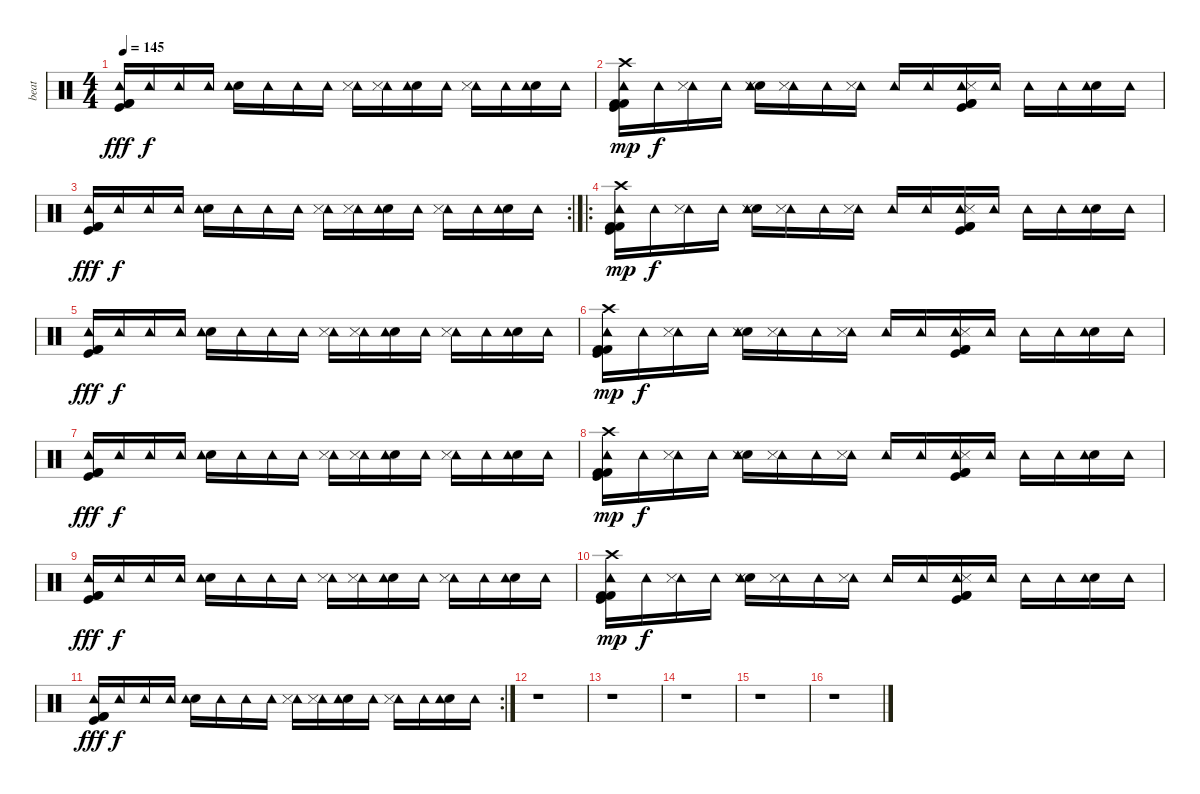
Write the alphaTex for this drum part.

\track ("beat" "beat") {instrument percussion}
\staff {score}
\articulation defaults
\ts (4 4)
\tempo 145
\clef neutral
\ks c
("Kick (hit)" "Kick (hit) 2" "Kick (hit) 2" "Tambourine (hit)").16{dy fff} "Tambourine (hit)".16{dy f} "Tambourine (hit)".16 "Tambourine (hit)".16 ("Electric Snare (hit)" "Tambourine (hit)").16 "Tambourine (hit)".16 "Tambourine (hit)".16 "Tambourine (hit)".16 ("Tambourine (hit)" "Snare (side stick) 3").16 ("Tambourine (hit)" "Snare (side stick) 3").16 ("Electric Snare (hit)" "Tambourine (hit)").16 "Tambourine (hit)".16 ("Tambourine (hit)" "Snare (side stick) 3").16 "Tambourine (hit)".16 ("Electric Snare (hit)" "Tambourine (hit)").16 "Tambourine (hit)".16 |
("Kick (hit)" "Kick (hit) 2" "Kick (hit) 2" "Tambourine (hit)" "Crash high (hit)").16{dy mp} "Tambourine (hit)".16{dy f} ("Tambourine (hit)" "Snare (side stick) 3").16 "Tambourine (hit)".16 ("Electric Snare (hit)" "Tambourine (hit)" "Snare (side stick) 3").16 ("Tambourine (hit)" "Snare (side stick) 3").16 "Tambourine (hit)".16 ("Tambourine (hit)" "Snare (side stick) 3").16 "Tambourine (hit)".16 "Tambourine (hit)".16 ("Kick (hit)" "Kick (hit) 2" "Kick (hit) 2" "Tambourine (hit)" "Snare (side stick) 3").16 "Tambourine (hit)".16 "Tambourine (hit)".16 "Tambourine (hit)".16 ("Electric Snare (hit)" "Tambourine (hit)").16 "Tambourine (hit)".16 |
\rc 2
("Kick (hit)" "Kick (hit) 2" "Kick (hit) 2" "Tambourine (hit)").16{dy fff} "Tambourine (hit)".16{dy f} "Tambourine (hit)".16 "Tambourine (hit)".16 ("Electric Snare (hit)" "Tambourine (hit)").16 "Tambourine (hit)".16 "Tambourine (hit)".16 "Tambourine (hit)".16 ("Tambourine (hit)" "Snare (side stick) 3").16 ("Tambourine (hit)" "Snare (side stick) 3").16 ("Electric Snare (hit)" "Tambourine (hit)").16 "Tambourine (hit)".16 ("Tambourine (hit)" "Snare (side stick) 3").16 "Tambourine (hit)".16 ("Electric Snare (hit)" "Tambourine (hit)").16 "Tambourine (hit)".16 |
\ro
("Kick (hit)" "Kick (hit) 2" "Kick (hit) 2" "Tambourine (hit)" "Crash high (hit)").16{dy mp} "Tambourine (hit)".16{dy f} ("Tambourine (hit)" "Snare (side stick) 3").16 "Tambourine (hit)".16 ("Electric Snare (hit)" "Tambourine (hit)" "Snare (side stick) 3").16 ("Tambourine (hit)" "Snare (side stick) 3").16 "Tambourine (hit)".16 ("Tambourine (hit)" "Snare (side stick) 3").16 "Tambourine (hit)".16 "Tambourine (hit)".16 ("Kick (hit)" "Kick (hit) 2" "Kick (hit) 2" "Tambourine (hit)" "Snare (side stick) 3").16 "Tambourine (hit)".16 "Tambourine (hit)".16 "Tambourine (hit)".16 ("Electric Snare (hit)" "Tambourine (hit)").16 "Tambourine (hit)".16 |
("Kick (hit)" "Kick (hit) 2" "Kick (hit) 2" "Tambourine (hit)").16{dy fff} "Tambourine (hit)".16{dy f} "Tambourine (hit)".16 "Tambourine (hit)".16 ("Electric Snare (hit)" "Tambourine (hit)").16 "Tambourine (hit)".16 "Tambourine (hit)".16 "Tambourine (hit)".16 ("Tambourine (hit)" "Snare (side stick) 3").16 ("Tambourine (hit)" "Snare (side stick) 3").16 ("Electric Snare (hit)" "Tambourine (hit)").16 "Tambourine (hit)".16 ("Tambourine (hit)" "Snare (side stick) 3").16 "Tambourine (hit)".16 ("Electric Snare (hit)" "Tambourine (hit)").16 "Tambourine (hit)".16 |
("Kick (hit)" "Kick (hit) 2" "Kick (hit) 2" "Tambourine (hit)" "Crash high (hit)").16{dy mp} "Tambourine (hit)".16{dy f} ("Tambourine (hit)" "Snare (side stick) 3").16 "Tambourine (hit)".16 ("Electric Snare (hit)" "Tambourine (hit)" "Snare (side stick) 3").16 ("Tambourine (hit)" "Snare (side stick) 3").16 "Tambourine (hit)".16 ("Tambourine (hit)" "Snare (side stick) 3").16 "Tambourine (hit)".16 "Tambourine (hit)".16 ("Kick (hit)" "Kick (hit) 2" "Kick (hit) 2" "Tambourine (hit)" "Snare (side stick) 3").16 "Tambourine (hit)".16 "Tambourine (hit)".16 "Tambourine (hit)".16 ("Electric Snare (hit)" "Tambourine (hit)").16 "Tambourine (hit)".16 |
("Kick (hit)" "Kick (hit) 2" "Kick (hit) 2" "Tambourine (hit)").16{dy fff} "Tambourine (hit)".16{dy f} "Tambourine (hit)".16 "Tambourine (hit)".16 ("Electric Snare (hit)" "Tambourine (hit)").16 "Tambourine (hit)".16 "Tambourine (hit)".16 "Tambourine (hit)".16 ("Tambourine (hit)" "Snare (side stick) 3").16 ("Tambourine (hit)" "Snare (side stick) 3").16 ("Electric Snare (hit)" "Tambourine (hit)").16 "Tambourine (hit)".16 ("Tambourine (hit)" "Snare (side stick) 3").16 "Tambourine (hit)".16 ("Electric Snare (hit)" "Tambourine (hit)").16 "Tambourine (hit)".16 |
("Kick (hit)" "Kick (hit) 2" "Kick (hit) 2" "Tambourine (hit)" "Crash high (hit)").16{dy mp} "Tambourine (hit)".16{dy f} ("Tambourine (hit)" "Snare (side stick) 3").16 "Tambourine (hit)".16 ("Electric Snare (hit)" "Tambourine (hit)" "Snare (side stick) 3").16 ("Tambourine (hit)" "Snare (side stick) 3").16 "Tambourine (hit)".16 ("Tambourine (hit)" "Snare (side stick) 3").16 "Tambourine (hit)".16 "Tambourine (hit)".16 ("Kick (hit)" "Kick (hit) 2" "Kick (hit) 2" "Tambourine (hit)" "Snare (side stick) 3").16 "Tambourine (hit)".16 "Tambourine (hit)".16 "Tambourine (hit)".16 ("Electric Snare (hit)" "Tambourine (hit)").16 "Tambourine (hit)".16 |
("Kick (hit)" "Kick (hit) 2" "Kick (hit) 2" "Tambourine (hit)").16{dy fff} "Tambourine (hit)".16{dy f} "Tambourine (hit)".16 "Tambourine (hit)".16 ("Electric Snare (hit)" "Tambourine (hit)").16 "Tambourine (hit)".16 "Tambourine (hit)".16 "Tambourine (hit)".16 ("Tambourine (hit)" "Snare (side stick) 3").16 ("Tambourine (hit)" "Snare (side stick) 3").16 ("Electric Snare (hit)" "Tambourine (hit)").16 "Tambourine (hit)".16 ("Tambourine (hit)" "Snare (side stick) 3").16 "Tambourine (hit)".16 ("Electric Snare (hit)" "Tambourine (hit)").16 "Tambourine (hit)".16 |
("Kick (hit)" "Kick (hit) 2" "Kick (hit) 2" "Tambourine (hit)" "Crash high (hit)").16{dy mp} "Tambourine (hit)".16{dy f} ("Tambourine (hit)" "Snare (side stick) 3").16 "Tambourine (hit)".16 ("Electric Snare (hit)" "Tambourine (hit)" "Snare (side stick) 3").16 ("Tambourine (hit)" "Snare (side stick) 3").16 "Tambourine (hit)".16 ("Tambourine (hit)" "Snare (side stick) 3").16 "Tambourine (hit)".16 "Tambourine (hit)".16 ("Kick (hit)" "Kick (hit) 2" "Kick (hit) 2" "Tambourine (hit)" "Snare (side stick) 3").16 "Tambourine (hit)".16 "Tambourine (hit)".16 "Tambourine (hit)".16 ("Electric Snare (hit)" "Tambourine (hit)").16 "Tambourine (hit)".16 |
\rc 2
("Kick (hit)" "Kick (hit) 2" "Kick (hit) 2" "Tambourine (hit)").16{dy fff} "Tambourine (hit)".16{dy f} "Tambourine (hit)".16 "Tambourine (hit)".16 ("Electric Snare (hit)" "Tambourine (hit)").16 "Tambourine (hit)".16 "Tambourine (hit)".16 "Tambourine (hit)".16 ("Tambourine (hit)" "Snare (side stick) 3").16 ("Tambourine (hit)" "Snare (side stick) 3").16 ("Electric Snare (hit)" "Tambourine (hit)").16 "Tambourine (hit)".16 ("Tambourine (hit)" "Snare (side stick) 3").16 "Tambourine (hit)".16 ("Electric Snare (hit)" "Tambourine (hit)").16 "Tambourine (hit)".16 |
r.1 |
r.1 |
r.1 |
r.1 |
r.1
